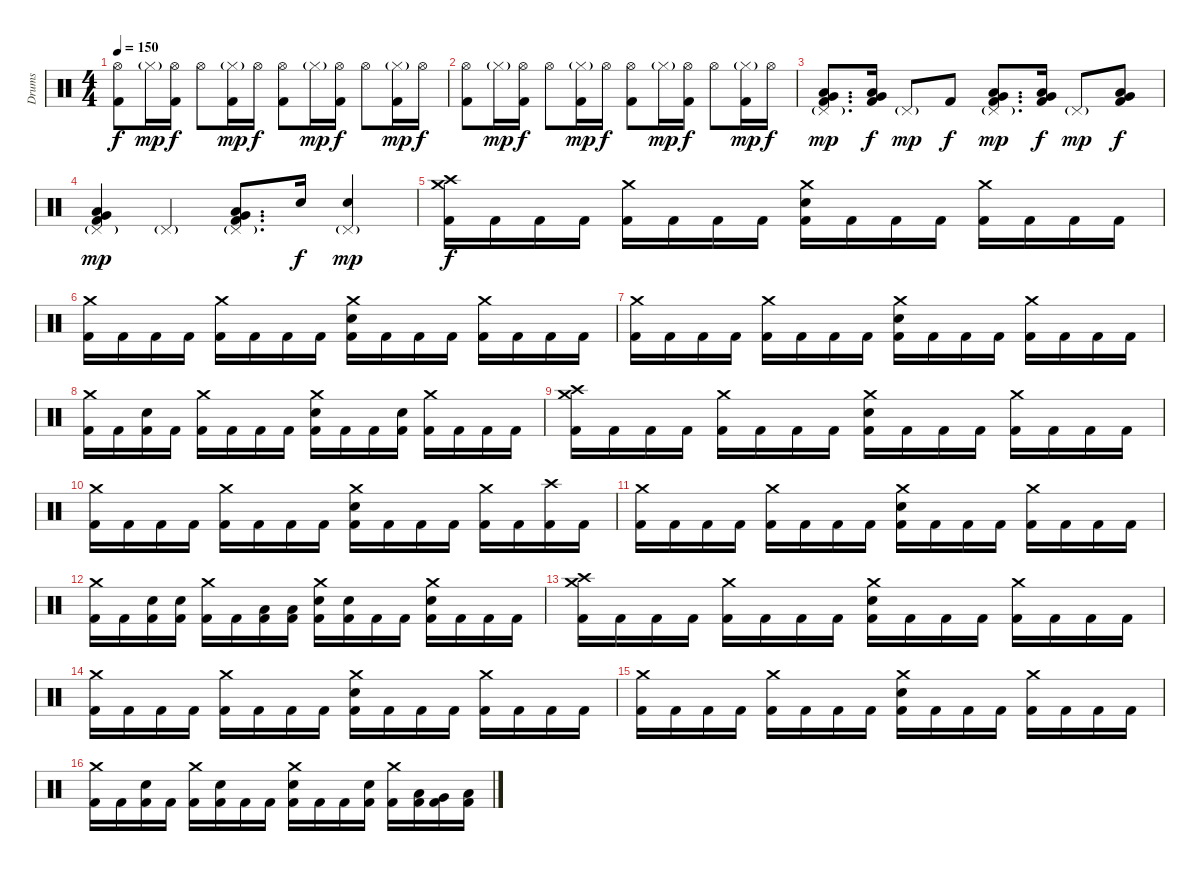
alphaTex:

\track ("Drums" "Drums") {instrument percussion}
\staff {score}
\articulation defaults
\ts (4 4)
\tempo 150
\clef neutral
\ks c
("Hi-Hat (open)" "Kick (hit) 2").8{dy f} "Hi-Hat (closed)"{g}.16{dy mp} ("Hi-Hat (open)" "Kick (hit) 2").16{dy f} "Hi-Hat (open)".8 ("Hi-Hat (closed)"{g} "Kick (hit) 2").16{dy mp} "Hi-Hat (open)".16{dy f} ("Hi-Hat (open)" "Kick (hit) 2").8 "Hi-Hat (closed)"{g}.16{dy mp} ("Hi-Hat (open)" "Kick (hit) 2").16{dy f} "Hi-Hat (open)".8 ("Hi-Hat (closed)"{g} "Kick (hit) 2").16{dy mp} "Hi-Hat (open)".16{dy f} |
("Hi-Hat (open)" "Kick (hit) 2").8 "Hi-Hat (closed)"{g}.16{dy mp} ("Hi-Hat (open)" "Kick (hit) 2").16{dy f} "Hi-Hat (open)".8 ("Hi-Hat (closed)"{g} "Kick (hit) 2").16{dy mp} "Hi-Hat (open)".16{dy f} ("Hi-Hat (open)" "Kick (hit) 2").8 "Hi-Hat (closed)"{g}.16{dy mp} ("Hi-Hat (open)" "Kick (hit) 2").16{dy f} "Hi-Hat (open)".8 ("Hi-Hat (closed)"{g} "Kick (hit) 2").16{dy mp} "Hi-Hat (open)".16{dy f} |
("Pedal Hi-Hat (hit)"{g} "Very Low Tom (hit)" "Low Tom (hit)" "Kick (hit) 2").8{d dy mp} ("Very Low Tom (hit)" "Low Tom (hit)" "Kick (hit) 2").16{dy f} "Pedal Hi-Hat (hit)"{g}.8{dy mp} "Kick (hit) 2".8{dy f} ("Pedal Hi-Hat (hit)"{g} "Very Low Tom (hit)" "Low Tom (hit)" "Kick (hit) 2").8{d dy mp} ("Very Low Tom (hit)" "Low Tom (hit)" "Kick (hit) 2").16{dy f} "Pedal Hi-Hat (hit)"{g}.8{dy mp} ("Very Low Tom (hit)" "Low Tom (hit)" "Kick (hit) 2").8{dy f} |
("Pedal Hi-Hat (hit)"{g} "Very Low Tom (hit)" "Low Tom (hit)" "Kick (hit) 2").4{dy mp} "Pedal Hi-Hat (hit)"{g}.4 ("Pedal Hi-Hat (hit)"{g} "Very Low Tom (hit)" "Low Tom (hit)" "Kick (hit) 2").8{d} "Snare (hit) 2".16{dy f} ("Pedal Hi-Hat (hit)"{g} "Snare (hit) 2").4{dy mp} |
("Crash medium (hit)" "Crash high (hit)" "Kick (hit) 2").16{dy f} "Kick (hit) 2".16 "Kick (hit) 2".16 "Kick (hit) 2".16 ("Crash medium (hit)" "Kick (hit) 2").16 "Kick (hit) 2".16 "Kick (hit) 2".16 "Kick (hit) 2".16 ("Crash medium (hit)" "Snare (hit) 2" "Kick (hit) 2").16 "Kick (hit) 2".16 "Kick (hit) 2".16 "Kick (hit) 2".16 ("Crash medium (hit)" "Kick (hit) 2").16 "Kick (hit) 2".16 "Kick (hit) 2".16 "Kick (hit) 2".16 |
("Crash medium (hit)" "Kick (hit) 2").16 "Kick (hit) 2".16 "Kick (hit) 2".16 "Kick (hit) 2".16 ("Crash medium (hit)" "Kick (hit) 2").16 "Kick (hit) 2".16 "Kick (hit) 2".16 "Kick (hit) 2".16 ("Crash medium (hit)" "Snare (hit) 2" "Kick (hit) 2").16 "Kick (hit) 2".16 "Kick (hit) 2".16 "Kick (hit) 2".16 ("Crash medium (hit)" "Kick (hit) 2").16 "Kick (hit) 2".16 "Kick (hit) 2".16 "Kick (hit) 2".16 |
("Crash medium (hit)" "Kick (hit) 2").16 "Kick (hit) 2".16 "Kick (hit) 2".16 "Kick (hit) 2".16 ("Crash medium (hit)" "Kick (hit) 2").16 "Kick (hit) 2".16 "Kick (hit) 2".16 "Kick (hit) 2".16 ("Crash medium (hit)" "Snare (hit) 2" "Kick (hit) 2").16 "Kick (hit) 2".16 "Kick (hit) 2".16 "Kick (hit) 2".16 ("Crash medium (hit)" "Kick (hit) 2").16 "Kick (hit) 2".16 "Kick (hit) 2".16 "Kick (hit) 2".16 |
("Crash medium (hit)" "Kick (hit) 2").16 "Kick (hit) 2".16 ("Snare (hit) 2" "Kick (hit) 2").16 "Kick (hit) 2".16 ("Crash medium (hit)" "Kick (hit) 2").16 "Kick (hit) 2".16 "Kick (hit) 2".16 "Kick (hit) 2".16 ("Crash medium (hit)" "Snare (hit) 2" "Kick (hit) 2").16 "Kick (hit) 2".16 "Kick (hit) 2".16 ("Snare (hit) 2" "Kick (hit) 2").16 ("Crash medium (hit)" "Kick (hit) 2").16 "Kick (hit) 2".16 "Kick (hit) 2".16 "Kick (hit) 2".16 |
("Crash medium (hit)" "Crash high (hit)" "Kick (hit) 2").16 "Kick (hit) 2".16 "Kick (hit) 2".16 "Kick (hit) 2".16 ("Crash medium (hit)" "Kick (hit) 2").16 "Kick (hit) 2".16 "Kick (hit) 2".16 "Kick (hit) 2".16 ("Crash medium (hit)" "Snare (hit) 2" "Kick (hit) 2").16 "Kick (hit) 2".16 "Kick (hit) 2".16 "Kick (hit) 2".16 ("Crash medium (hit)" "Kick (hit) 2").16 "Kick (hit) 2".16 "Kick (hit) 2".16 "Kick (hit) 2".16 |
("Crash medium (hit)" "Kick (hit) 2").16 "Kick (hit) 2".16 "Kick (hit) 2".16 "Kick (hit) 2".16 ("Crash medium (hit)" "Kick (hit) 2").16 "Kick (hit) 2".16 "Kick (hit) 2".16 "Kick (hit) 2".16 ("Crash medium (hit)" "Snare (hit) 2" "Kick (hit) 2").16 "Kick (hit) 2".16 "Kick (hit) 2".16 "Kick (hit) 2".16 ("Crash medium (hit)" "Kick (hit) 2").16 "Kick (hit) 2".16 ("Crash high (hit)" "Kick (hit) 2").16 "Kick (hit) 2".16 |
("Crash medium (hit)" "Kick (hit) 2").16 "Kick (hit) 2".16 "Kick (hit) 2".16 "Kick (hit) 2".16 ("Crash medium (hit)" "Kick (hit) 2").16 "Kick (hit) 2".16 "Kick (hit) 2".16 "Kick (hit) 2".16 ("Crash medium (hit)" "Snare (hit) 2" "Kick (hit) 2").16 "Kick (hit) 2".16 "Kick (hit) 2".16 "Kick (hit) 2".16 ("Crash medium (hit)" "Kick (hit) 2").16 "Kick (hit) 2".16 "Kick (hit) 2".16 "Kick (hit) 2".16 |
("Crash medium (hit)" "Kick (hit) 2").16 "Kick (hit) 2".16 ("Snare (hit) 2" "Kick (hit) 2").16 ("Snare (hit) 2" "Kick (hit) 2").16 ("Crash medium (hit)" "Kick (hit) 2").16 "Kick (hit) 2".16 ("Low Tom (hit)" "Kick (hit) 2").16 ("Low Tom (hit)" "Kick (hit) 2").16 ("Crash medium (hit)" "Snare (hit) 2" "Kick (hit) 2").16 ("Snare (hit) 2" "Kick (hit) 2").16 "Kick (hit) 2".16 "Kick (hit) 2".16 ("Crash medium (hit)" "Snare (hit) 2" "Kick (hit) 2").16 "Kick (hit) 2".16 "Kick (hit) 2".16 "Kick (hit) 2".16 |
("Crash medium (hit)" "Crash high (hit)" "Kick (hit) 2").16 "Kick (hit) 2".16 "Kick (hit) 2".16 "Kick (hit) 2".16 ("Crash medium (hit)" "Kick (hit) 2").16 "Kick (hit) 2".16 "Kick (hit) 2".16 "Kick (hit) 2".16 ("Crash medium (hit)" "Snare (hit) 2" "Kick (hit) 2").16 "Kick (hit) 2".16 "Kick (hit) 2".16 "Kick (hit) 2".16 ("Crash medium (hit)" "Kick (hit) 2").16 "Kick (hit) 2".16 "Kick (hit) 2".16 "Kick (hit) 2".16 |
("Crash medium (hit)" "Kick (hit) 2").16 "Kick (hit) 2".16 "Kick (hit) 2".16 "Kick (hit) 2".16 ("Crash medium (hit)" "Kick (hit) 2").16 "Kick (hit) 2".16 "Kick (hit) 2".16 "Kick (hit) 2".16 ("Crash medium (hit)" "Snare (hit) 2" "Kick (hit) 2").16 "Kick (hit) 2".16 "Kick (hit) 2".16 "Kick (hit) 2".16 ("Crash medium (hit)" "Kick (hit) 2").16 "Kick (hit) 2".16 "Kick (hit) 2".16 "Kick (hit) 2".16 |
("Crash medium (hit)" "Kick (hit) 2").16 "Kick (hit) 2".16 "Kick (hit) 2".16 "Kick (hit) 2".16 ("Crash medium (hit)" "Kick (hit) 2").16 "Kick (hit) 2".16 "Kick (hit) 2".16 "Kick (hit) 2".16 ("Crash medium (hit)" "Snare (hit) 2" "Kick (hit) 2").16 "Kick (hit) 2".16 "Kick (hit) 2".16 "Kick (hit) 2".16 ("Crash medium (hit)" "Kick (hit) 2").16 "Kick (hit) 2".16 "Kick (hit) 2".16 "Kick (hit) 2".16 |
("Crash medium (hit)" "Kick (hit) 2").16 "Kick (hit) 2".16 ("Snare (hit) 2" "Kick (hit) 2").16 "Kick (hit) 2".16 ("Crash medium (hit)" "Kick (hit) 2").16 ("Snare (hit) 2" "Kick (hit) 2").16 "Kick (hit) 2".16 "Kick (hit) 2".16 ("Crash medium (hit)" "Snare (hit) 2" "Kick (hit) 2").16 "Kick (hit) 2".16 "Kick (hit) 2".16 ("Snare (hit) 2" "Kick (hit) 2").16 ("Crash medium (hit)" "Kick (hit) 2").16 ("Low Tom (hit)" "Kick (hit) 2").16 ("Very Low Tom (hit)" "Kick (hit) 2").16 ("Low Floor Tom (hit)" "Kick (hit) 2").16
